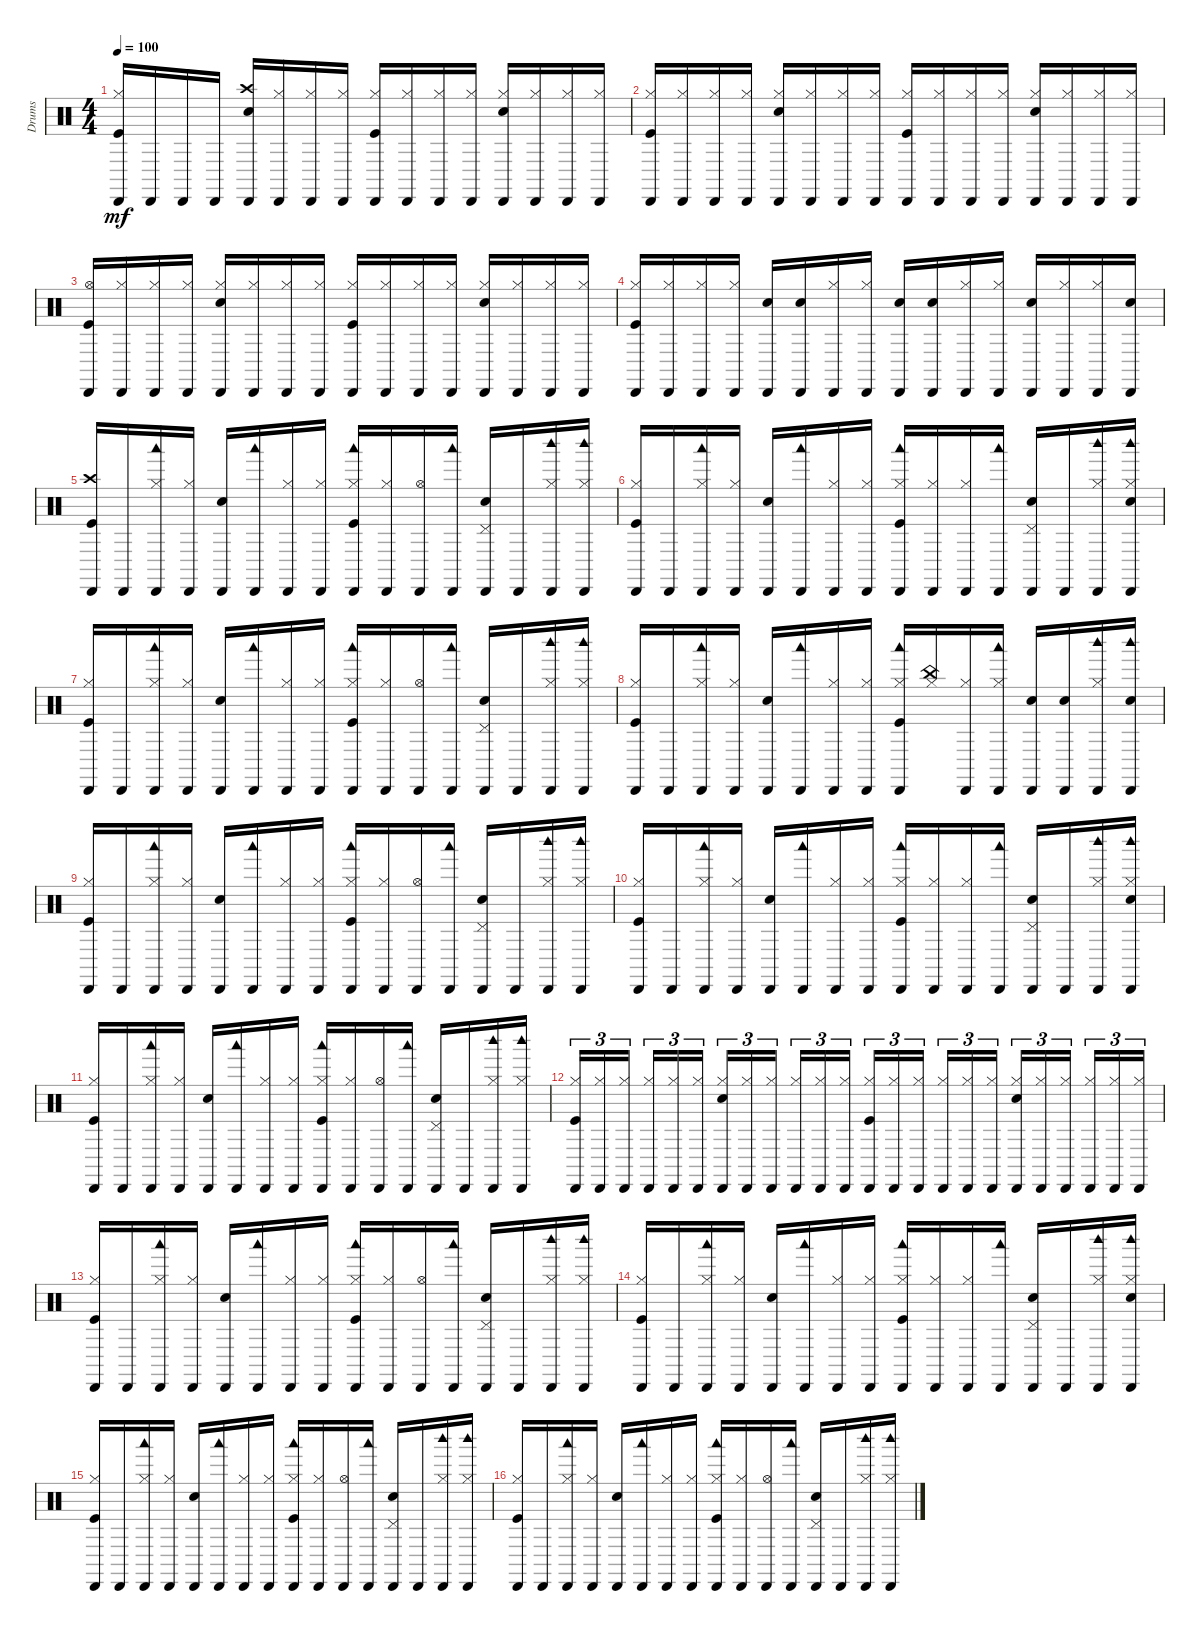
\track ("Drums" "Drums") {instrument percussion}
\staff {score}
\articulation defaults
\ts (4 4)
\tempo 100
\clef neutral
\ks c
("Kick (hit)" "Hi-Hat (closed)" "Cabasa (hit)").16{dy mf} "Cabasa (hit)".16 "Cabasa (hit)".16 "Cabasa (hit)".16 ("Snare (hit) 2" "Crash high (hit)" "Cabasa (hit)").16 ("Hi-Hat (closed)" "Cabasa (hit)").16 ("Hi-Hat (closed)" "Cabasa (hit)").16 ("Hi-Hat (closed)" "Cabasa (hit)").16 ("Kick (hit)" "Hi-Hat (closed)" "Cabasa (hit)").16 ("Hi-Hat (closed)" "Cabasa (hit)").16 ("Hi-Hat (closed)" "Cabasa (hit)").16 ("Hi-Hat (closed)" "Cabasa (hit)").16 ("Snare (hit) 2" "Hi-Hat (closed)" "Cabasa (hit)").16 ("Hi-Hat (closed)" "Cabasa (hit)").16 ("Hi-Hat (closed)" "Cabasa (hit)").16 ("Hi-Hat (closed)" "Cabasa (hit)").16 |
("Kick (hit)" "Hi-Hat (closed)" "Cabasa (hit)").16 ("Hi-Hat (closed)" "Cabasa (hit)").16 ("Hi-Hat (closed)" "Cabasa (hit)").16 ("Hi-Hat (closed)" "Cabasa (hit)").16 ("Snare (hit) 2" "Hi-Hat (closed)" "Cabasa (hit)").16 ("Hi-Hat (closed)" "Cabasa (hit)").16 ("Hi-Hat (closed)" "Cabasa (hit)").16 ("Hi-Hat (closed)" "Cabasa (hit)").16 ("Kick (hit)" "Hi-Hat (closed)" "Cabasa (hit)").16 ("Hi-Hat (closed)" "Cabasa (hit)").16 ("Hi-Hat (closed)" "Cabasa (hit)").16 ("Hi-Hat (closed)" "Cabasa (hit)").16 ("Snare (hit) 2" "Hi-Hat (closed)" "Cabasa (hit)").16 ("Hi-Hat (closed)" "Cabasa (hit)").16 ("Hi-Hat (closed)" "Cabasa (hit)").16 ("Hi-Hat (closed)" "Cabasa (hit)").16 |
("Kick (hit)" "Hi-Hat (open)" "Cabasa (hit)").16 ("Hi-Hat (closed)" "Cabasa (hit)").16 ("Hi-Hat (closed)" "Cabasa (hit)").16 ("Hi-Hat (closed)" "Cabasa (hit)").16 ("Snare (hit) 2" "Hi-Hat (closed)" "Cabasa (hit)").16 ("Hi-Hat (closed)" "Cabasa (hit)").16 ("Hi-Hat (closed)" "Cabasa (hit)").16 ("Hi-Hat (closed)" "Cabasa (hit)").16 ("Kick (hit)" "Hi-Hat (closed)" "Cabasa (hit)").16 ("Hi-Hat (closed)" "Cabasa (hit)").16 ("Hi-Hat (closed)" "Cabasa (hit)").16 ("Hi-Hat (closed)" "Cabasa (hit)").16 ("Snare (hit) 2" "Hi-Hat (closed)" "Cabasa (hit)").16 ("Hi-Hat (closed)" "Cabasa (hit)").16 ("Hi-Hat (closed)" "Cabasa (hit)").16 ("Hi-Hat (closed)" "Cabasa (hit)").16 |
("Kick (hit)" "Hi-Hat (closed)" "Cabasa (hit)").16 ("Hi-Hat (closed)" "Cabasa (hit)").16 ("Hi-Hat (closed)" "Cabasa (hit)").16 ("Hi-Hat (closed)" "Cabasa (hit)").16 ("Snare (hit) 2" "Cabasa (hit)").16 ("Snare (hit) 2" "Cabasa (hit)").16 ("Hi-Hat (closed)" "Cabasa (hit)").16 ("Hi-Hat (closed)" "Cabasa (hit)").16 ("Snare (hit) 2" "Cabasa (hit)").16 ("Snare (hit) 2" "Cabasa (hit)").16 ("Hi-Hat (closed)" "Cabasa (hit)").16 ("Hi-Hat (closed)" "Cabasa (hit)").16 ("Snare (hit) 2" "Cabasa (hit)").16 ("Hi-Hat (closed)" "Cabasa (hit)").16 ("Hi-Hat (closed)" "Cabasa (hit)").16 ("Snare (hit) 2" "Cabasa (hit)").16 |
("Kick (hit)" "Crash high (hit)" "Cabasa (hit)").16 "Cabasa (hit)".16 ("Hi-Hat (closed)" "Woodblock low (hit)" "Cabasa (hit)").16 ("Hi-Hat (closed)" "Cabasa (hit)").16 ("Snare (hit) 2" "Cabasa (hit)").16 ("Woodblock low (hit)" "Cabasa (hit)").16 ("Hi-Hat (closed)" "Cabasa (hit)").16 ("Hi-Hat (closed)" "Cabasa (hit)").16 ("Kick (hit)" "Hi-Hat (closed)" "Woodblock low (hit)" "Cabasa (hit)").16 ("Hi-Hat (closed)" "Cabasa (hit)").16 ("Hi-Hat (open)" "Cabasa (hit)").16 ("Woodblock low (hit)" "Cabasa (hit)").16 ("Snare (hit) 2" "Pedal Hi-Hat (hit)" "Cabasa (hit)").16 "Cabasa (hit)".16 ("Hi-Hat (closed)" "Woodblock high (hit)" "Cabasa (hit)").16 ("Hi-Hat (closed)" "Woodblock high (hit)" "Cabasa (hit)").16 |
("Kick (hit)" "Hi-Hat (closed)" "Cabasa (hit)").16 "Cabasa (hit)".16 ("Hi-Hat (closed)" "Woodblock low (hit)" "Cabasa (hit)").16 ("Hi-Hat (closed)" "Cabasa (hit)").16 ("Snare (hit) 2" "Cabasa (hit)").16 ("Woodblock low (hit)" "Cabasa (hit)").16 ("Hi-Hat (closed)" "Cabasa (hit)").16 ("Hi-Hat (closed)" "Cabasa (hit)").16 ("Kick (hit)" "Hi-Hat (closed)" "Woodblock low (hit)" "Cabasa (hit)").16 ("Hi-Hat (closed)" "Cabasa (hit)").16 ("Hi-Hat (closed)" "Cabasa (hit)").16 ("Woodblock low (hit)" "Cabasa (hit)").16 ("Snare (hit) 2" "Pedal Hi-Hat (hit)" "Cabasa (hit)").16 "Cabasa (hit)".16 ("Hi-Hat (closed)" "Woodblock high (hit)" "Cabasa (hit)").16 ("Snare (hit) 2" "Hi-Hat (closed)" "Woodblock high (hit)" "Cabasa (hit)").16 |
("Kick (hit)" "Hi-Hat (closed)" "Cabasa (hit)").16 "Cabasa (hit)".16 ("Hi-Hat (closed)" "Woodblock low (hit)" "Cabasa (hit)").16 ("Hi-Hat (closed)" "Cabasa (hit)").16 ("Snare (hit) 2" "Cabasa (hit)").16 ("Woodblock low (hit)" "Cabasa (hit)").16 ("Hi-Hat (closed)" "Cabasa (hit)").16 ("Hi-Hat (closed)" "Cabasa (hit)").16 ("Kick (hit)" "Hi-Hat (closed)" "Woodblock low (hit)" "Cabasa (hit)").16 ("Hi-Hat (closed)" "Cabasa (hit)").16 ("Hi-Hat (open)" "Cabasa (hit)").16 ("Woodblock low (hit)" "Cabasa (hit)").16 ("Snare (hit) 2" "Pedal Hi-Hat (hit)" "Cabasa (hit)").16 "Cabasa (hit)".16 ("Hi-Hat (closed)" "Woodblock high (hit)" "Cabasa (hit)").16 ("Hi-Hat (closed)" "Woodblock high (hit)" "Cabasa (hit)").16 |
("Kick (hit)" "Hi-Hat (closed)" "Cabasa (hit)").16 "Cabasa (hit)".16 ("Hi-Hat (closed)" "Woodblock low (hit)" "Cabasa (hit)").16 ("Hi-Hat (closed)" "Cabasa (hit)").16 ("Snare (hit) 2" "Cabasa (hit)").16 ("Woodblock low (hit)" "Cabasa (hit)").16 ("Hi-Hat (closed)" "Cabasa (hit)").16 ("Hi-Hat (closed)" "Cabasa (hit)").16 ("Kick (hit)" "Hi-Hat (closed)" "Woodblock low (hit)" "Cabasa (hit)").16 ("Hi-Hat (closed)" "China (choke)").16 ("Hi-Hat (closed)" "Cabasa (hit)").16 ("Hi-Hat (closed)" "Woodblock low (hit)" "Cabasa (hit)").16 ("Snare (hit) 2" "Cabasa (hit)").16 ("Snare (hit) 2" "Cabasa (hit)").16 ("Hi-Hat (closed)" "Woodblock high (hit)" "Cabasa (hit)").16 ("Snare (hit) 2" "Woodblock high (hit)" "Cabasa (hit)").16 |
("Kick (hit)" "Hi-Hat (closed)" "Cabasa (hit)").16 "Cabasa (hit)".16 ("Hi-Hat (closed)" "Woodblock low (hit)" "Cabasa (hit)").16 ("Hi-Hat (closed)" "Cabasa (hit)").16 ("Snare (hit) 2" "Cabasa (hit)").16 ("Woodblock low (hit)" "Cabasa (hit)").16 ("Hi-Hat (closed)" "Cabasa (hit)").16 ("Hi-Hat (closed)" "Cabasa (hit)").16 ("Kick (hit)" "Hi-Hat (closed)" "Woodblock low (hit)" "Cabasa (hit)").16 ("Hi-Hat (closed)" "Cabasa (hit)").16 ("Hi-Hat (open)" "Cabasa (hit)").16 ("Woodblock low (hit)" "Cabasa (hit)").16 ("Snare (hit) 2" "Pedal Hi-Hat (hit)" "Cabasa (hit)").16 "Cabasa (hit)".16 ("Hi-Hat (closed)" "Woodblock high (hit)" "Cabasa (hit)").16 ("Hi-Hat (closed)" "Woodblock high (hit)" "Cabasa (hit)").16 |
("Kick (hit)" "Hi-Hat (closed)" "Cabasa (hit)").16 "Cabasa (hit)".16 ("Hi-Hat (closed)" "Woodblock low (hit)" "Cabasa (hit)").16 ("Hi-Hat (closed)" "Cabasa (hit)").16 ("Snare (hit) 2" "Cabasa (hit)").16 ("Woodblock low (hit)" "Cabasa (hit)").16 ("Hi-Hat (closed)" "Cabasa (hit)").16 ("Hi-Hat (closed)" "Cabasa (hit)").16 ("Kick (hit)" "Hi-Hat (closed)" "Woodblock low (hit)" "Cabasa (hit)").16 ("Hi-Hat (closed)" "Cabasa (hit)").16 ("Hi-Hat (closed)" "Cabasa (hit)").16 ("Woodblock low (hit)" "Cabasa (hit)").16 ("Snare (hit) 2" "Pedal Hi-Hat (hit)" "Cabasa (hit)").16 "Cabasa (hit)".16 ("Hi-Hat (closed)" "Woodblock high (hit)" "Cabasa (hit)").16 ("Snare (hit) 2" "Hi-Hat (closed)" "Woodblock high (hit)" "Cabasa (hit)").16 |
("Kick (hit)" "Hi-Hat (closed)" "Cabasa (hit)").16 "Cabasa (hit)".16 ("Hi-Hat (closed)" "Woodblock low (hit)" "Cabasa (hit)").16 ("Hi-Hat (closed)" "Cabasa (hit)").16 ("Snare (hit) 2" "Cabasa (hit)").16 ("Woodblock low (hit)" "Cabasa (hit)").16 ("Hi-Hat (closed)" "Cabasa (hit)").16 ("Hi-Hat (closed)" "Cabasa (hit)").16 ("Kick (hit)" "Hi-Hat (closed)" "Woodblock low (hit)" "Cabasa (hit)").16 ("Hi-Hat (closed)" "Cabasa (hit)").16 ("Hi-Hat (open)" "Cabasa (hit)").16 ("Woodblock low (hit)" "Cabasa (hit)").16 ("Snare (hit) 2" "Pedal Hi-Hat (hit)" "Cabasa (hit)").16 "Cabasa (hit)".16 ("Hi-Hat (closed)" "Woodblock high (hit)" "Cabasa (hit)").16 ("Hi-Hat (closed)" "Woodblock high (hit)" "Cabasa (hit)").16 |
("Kick (hit)" "Hi-Hat (closed)" "Cabasa (hit)").16{tu (3 2)} ("Hi-Hat (closed)" "Cabasa (hit)").16{tu (3 2)} ("Hi-Hat (closed)" "Cabasa (hit)").16{tu (3 2) beam splitsecondary} ("Hi-Hat (closed)" "Cabasa (hit)").16{tu (3 2)} ("Hi-Hat (closed)" "Cabasa (hit)").16{tu (3 2)} ("Hi-Hat (closed)" "Cabasa (hit)").16{tu (3 2)} ("Snare (hit) 2" "Hi-Hat (closed)" "Cabasa (hit)").16{tu (3 2)} ("Hi-Hat (closed)" "Cabasa (hit)").16{tu (3 2)} ("Hi-Hat (closed)" "Cabasa (hit)").16{tu (3 2) beam splitsecondary} ("Hi-Hat (closed)" "Cabasa (hit)").16{tu (3 2)} ("Hi-Hat (closed)" "Cabasa (hit)").16{tu (3 2)} ("Hi-Hat (closed)" "Cabasa (hit)").16{tu (3 2)} ("Kick (hit)" "Hi-Hat (closed)" "Cabasa (hit)").16{tu (3 2)} ("Hi-Hat (closed)" "Cabasa (hit)").16{tu (3 2)} ("Hi-Hat (closed)" "Cabasa (hit)").16{tu (3 2) beam splitsecondary} ("Hi-Hat (closed)" "Cabasa (hit)").16{tu (3 2)} ("Hi-Hat (closed)" "Cabasa (hit)").16{tu (3 2)} ("Hi-Hat (closed)" "Cabasa (hit)").16{tu (3 2)} ("Snare (hit) 2" "Hi-Hat (closed)" "Cabasa (hit)").16{tu (3 2)} ("Hi-Hat (closed)" "Cabasa (hit)").16{tu (3 2)} ("Hi-Hat (closed)" "Cabasa (hit)").16{tu (3 2) beam splitsecondary} ("Hi-Hat (closed)" "Cabasa (hit)").16{tu (3 2)} ("Hi-Hat (closed)" "Cabasa (hit)").16{tu (3 2)} ("Hi-Hat (closed)" "Cabasa (hit)").16{tu (3 2)} |
("Kick (hit)" "Hi-Hat (closed)" "Cabasa (hit)").16 "Cabasa (hit)".16 ("Hi-Hat (closed)" "Woodblock low (hit)" "Cabasa (hit)").16 ("Hi-Hat (closed)" "Cabasa (hit)").16 ("Snare (hit) 2" "Cabasa (hit)").16 ("Woodblock low (hit)" "Cabasa (hit)").16 ("Hi-Hat (closed)" "Cabasa (hit)").16 ("Hi-Hat (closed)" "Cabasa (hit)").16 ("Kick (hit)" "Hi-Hat (closed)" "Woodblock low (hit)" "Cabasa (hit)").16 ("Hi-Hat (closed)" "Cabasa (hit)").16 ("Hi-Hat (open)" "Cabasa (hit)").16 ("Woodblock low (hit)" "Cabasa (hit)").16 ("Snare (hit) 2" "Pedal Hi-Hat (hit)" "Cabasa (hit)").16 "Cabasa (hit)".16 ("Hi-Hat (closed)" "Woodblock high (hit)" "Cabasa (hit)").16 ("Hi-Hat (closed)" "Woodblock high (hit)" "Cabasa (hit)").16 |
("Kick (hit)" "Hi-Hat (closed)" "Cabasa (hit)").16 "Cabasa (hit)".16 ("Hi-Hat (closed)" "Woodblock low (hit)" "Cabasa (hit)").16 ("Hi-Hat (closed)" "Cabasa (hit)").16 ("Snare (hit) 2" "Cabasa (hit)").16 ("Woodblock low (hit)" "Cabasa (hit)").16 ("Hi-Hat (closed)" "Cabasa (hit)").16 ("Hi-Hat (closed)" "Cabasa (hit)").16 ("Kick (hit)" "Hi-Hat (closed)" "Woodblock low (hit)" "Cabasa (hit)").16 ("Hi-Hat (closed)" "Cabasa (hit)").16 ("Hi-Hat (closed)" "Cabasa (hit)").16 ("Woodblock low (hit)" "Cabasa (hit)").16 ("Snare (hit) 2" "Pedal Hi-Hat (hit)" "Cabasa (hit)").16 "Cabasa (hit)".16 ("Hi-Hat (closed)" "Woodblock high (hit)" "Cabasa (hit)").16 ("Snare (hit) 2" "Hi-Hat (closed)" "Woodblock high (hit)" "Cabasa (hit)").16 |
("Kick (hit)" "Hi-Hat (closed)" "Cabasa (hit)").16 "Cabasa (hit)".16 ("Hi-Hat (closed)" "Woodblock low (hit)" "Cabasa (hit)").16 ("Hi-Hat (closed)" "Cabasa (hit)").16 ("Snare (hit) 2" "Cabasa (hit)").16 ("Woodblock low (hit)" "Cabasa (hit)").16 ("Hi-Hat (closed)" "Cabasa (hit)").16 ("Hi-Hat (closed)" "Cabasa (hit)").16 ("Kick (hit)" "Hi-Hat (closed)" "Woodblock low (hit)" "Cabasa (hit)").16 ("Hi-Hat (closed)" "Cabasa (hit)").16 ("Hi-Hat (open)" "Cabasa (hit)").16 ("Woodblock low (hit)" "Cabasa (hit)").16 ("Snare (hit) 2" "Pedal Hi-Hat (hit)" "Cabasa (hit)").16 "Cabasa (hit)".16 ("Hi-Hat (closed)" "Woodblock high (hit)" "Cabasa (hit)").16 ("Hi-Hat (closed)" "Woodblock high (hit)" "Cabasa (hit)").16 |
("Kick (hit)" "Hi-Hat (closed)" "Cabasa (hit)").16 "Cabasa (hit)".16 ("Hi-Hat (closed)" "Woodblock low (hit)" "Cabasa (hit)").16 ("Hi-Hat (closed)" "Cabasa (hit)").16 ("Snare (hit) 2" "Cabasa (hit)").16 ("Woodblock low (hit)" "Cabasa (hit)").16 ("Hi-Hat (closed)" "Cabasa (hit)").16 ("Hi-Hat (closed)" "Cabasa (hit)").16 ("Kick (hit)" "Hi-Hat (closed)" "Woodblock low (hit)" "Cabasa (hit)").16 ("Hi-Hat (closed)" "Cabasa (hit)").16 ("Hi-Hat (open)" "Cabasa (hit)").16 ("Woodblock low (hit)" "Cabasa (hit)").16 ("Snare (hit) 2" "Pedal Hi-Hat (hit)" "Cabasa (hit)").16 "Cabasa (hit)".16 ("Hi-Hat (closed)" "Woodblock high (hit)" "Cabasa (hit)").16 ("Hi-Hat (closed)" "Woodblock high (hit)" "Cabasa (hit)").16
